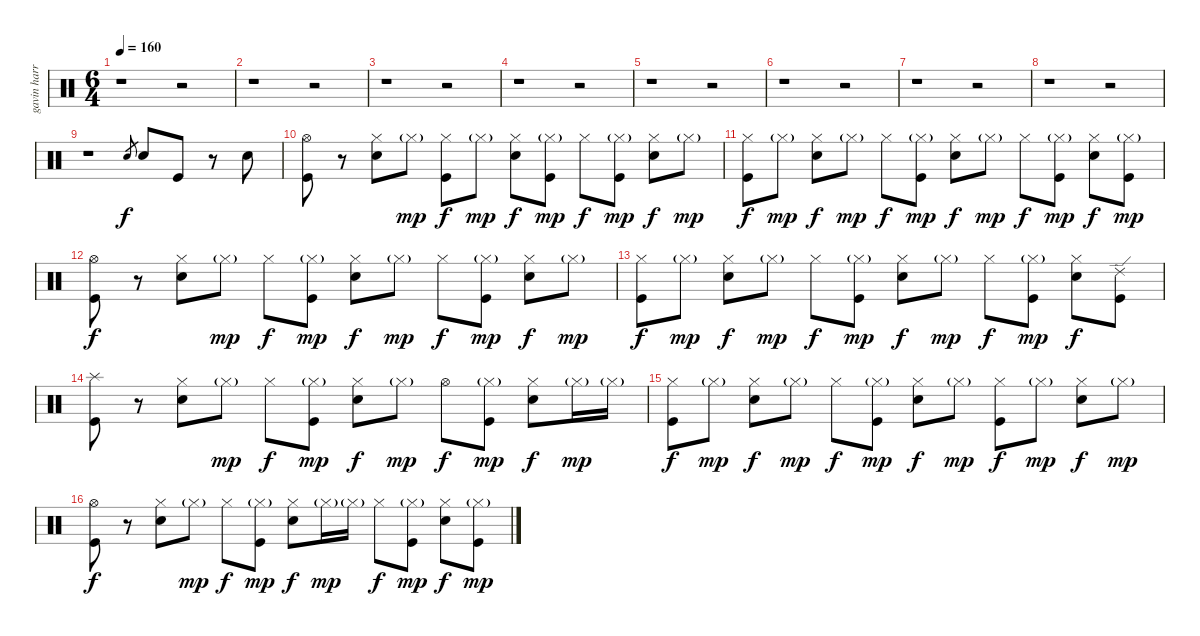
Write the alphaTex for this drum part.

\track ("gavin harrison ( drum ) " "gavin harr") {instrument percussion}
\staff {score}
\articulation defaults
\ts (6 4)
\tempo 160
\clef neutral
\ks c
r.1{dy f} r.2 |
r.1 r.2 |
r.1 r.2 |
r.1 r.2 |
r.1 r.2 |
r.1 r.2 |
r.1 r.2 |
r.1 r.2 |
r.1 "Snare (hit) 2".8{gr} "Snare (hit) 2".8 "Kick (hit)".8 r.8 "Snare (hit) 2".8 |
("Hi-Hat (open)" "Kick (hit)").8 r.8 ("Hi-Hat (closed)" "Snare (hit) 2").8 "Hi-Hat (closed)"{g}.8{dy mp} ("Hi-Hat (closed)" "Kick (hit)").8{dy f} "Hi-Hat (closed)"{g}.8{dy mp} ("Hi-Hat (closed)" "Snare (hit) 2").8{dy f} ("Hi-Hat (closed)"{g} "Kick (hit)").8{dy mp} "Hi-Hat (closed)".8{dy f} ("Hi-Hat (closed)"{g} "Kick (hit)").8{dy mp} ("Hi-Hat (closed)" "Snare (hit) 2").8{dy f} "Hi-Hat (closed)"{g}.8{dy mp} |
("Hi-Hat (closed)" "Kick (hit)").8{dy f} "Hi-Hat (closed)"{g}.8{dy mp} ("Hi-Hat (closed)" "Snare (hit) 2").8{dy f} "Hi-Hat (closed)"{g}.8{dy mp} "Hi-Hat (closed)".8{dy f} ("Hi-Hat (closed)"{g} "Kick (hit)").8{dy mp} ("Hi-Hat (closed)" "Snare (hit) 2").8{dy f} "Hi-Hat (closed)"{g}.8{dy mp} "Hi-Hat (closed)".8{dy f} ("Hi-Hat (closed)"{g} "Kick (hit)").8{dy mp} ("Hi-Hat (closed)" "Snare (hit) 2").8{dy f} ("Hi-Hat (closed)"{g} "Kick (hit)").8{dy mp} |
("Hi-Hat (open)" "Kick (hit)").8{dy f} r.8 ("Hi-Hat (closed)" "Snare (hit) 2").8 "Hi-Hat (closed)"{g}.8{dy mp} "Hi-Hat (closed)".8{dy f} ("Hi-Hat (closed)"{g} "Kick (hit)").8{dy mp} ("Hi-Hat (closed)" "Snare (hit) 2").8{dy f} "Hi-Hat (closed)"{g}.8{dy mp} "Hi-Hat (closed)".8{dy f} ("Hi-Hat (closed)"{g} "Kick (hit)").8{dy mp} ("Hi-Hat (closed)" "Snare (hit) 2").8{dy f} "Hi-Hat (closed)"{g}.8{dy mp} |
("Hi-Hat (closed)" "Kick (hit)").8{dy f} "Hi-Hat (closed)"{g}.8{dy mp} ("Hi-Hat (closed)" "Snare (hit) 2").8{dy f} "Hi-Hat (closed)"{g}.8{dy mp} "Hi-Hat (closed)".8{dy f} ("Hi-Hat (closed)"{g} "Kick (hit)").8{dy mp} ("Hi-Hat (closed)" "Snare (hit) 2").8{dy f} "Hi-Hat (closed)"{g}.8{dy mp} "Hi-Hat (closed)".8{dy f} ("Hi-Hat (closed)"{g} "Kick (hit)").8{dy mp} ("Hi-Hat (closed)" "Snare (hit) 2").8{dy f} ("Ride (edge) 2" "Kick (hit)").8 |
("Splash (hit)" "Kick (hit)").8 r.8 ("Hi-Hat (closed)" "Snare (hit) 2").8 "Hi-Hat (closed)"{g}.8{dy mp} "Hi-Hat (closed)".8{dy f} ("Hi-Hat (closed)"{g} "Kick (hit)").8{dy mp} ("Hi-Hat (closed)" "Snare (hit) 2").8{dy f} "Hi-Hat (closed)"{g}.8{dy mp} "Hi-Hat (open)".8{dy f} ("Hi-Hat (closed)"{g} "Kick (hit)").8{dy mp} ("Hi-Hat (closed)" "Snare (hit) 2").8{dy f} "Hi-Hat (closed)"{g}.16{dy mp} "Hi-Hat (closed)"{g}.16 |
("Hi-Hat (closed)" "Kick (hit)").8{dy f} "Hi-Hat (closed)"{g}.8{dy mp} ("Hi-Hat (closed)" "Snare (hit) 2").8{dy f} "Hi-Hat (closed)"{g}.8{dy mp} "Hi-Hat (closed)".8{dy f} ("Hi-Hat (closed)"{g} "Kick (hit)").8{dy mp} ("Hi-Hat (closed)" "Snare (hit) 2").8{dy f} "Hi-Hat (closed)"{g}.8{dy mp} ("Hi-Hat (closed)" "Kick (hit)").8{dy f} "Hi-Hat (closed)"{g}.8{dy mp} ("Hi-Hat (closed)" "Snare (hit) 2").8{dy f} "Hi-Hat (closed)"{g}.8{dy mp} |
("Hi-Hat (open)" "Kick (hit)").8{dy f} r.8 ("Hi-Hat (closed)" "Snare (hit) 2").8 "Hi-Hat (closed)"{g}.8{dy mp} "Hi-Hat (closed)".8{dy f} ("Hi-Hat (closed)"{g} "Kick (hit)").8{dy mp} ("Hi-Hat (closed)" "Snare (hit) 2").8{dy f} "Hi-Hat (closed)"{g}.16{dy mp} "Hi-Hat (closed)"{g}.16 "Hi-Hat (closed)".8{dy f} ("Hi-Hat (closed)"{g} "Kick (hit)").8{dy mp} ("Hi-Hat (closed)" "Snare (hit) 2").8{dy f} ("Hi-Hat (closed)"{g} "Kick (hit)").8{dy mp}
